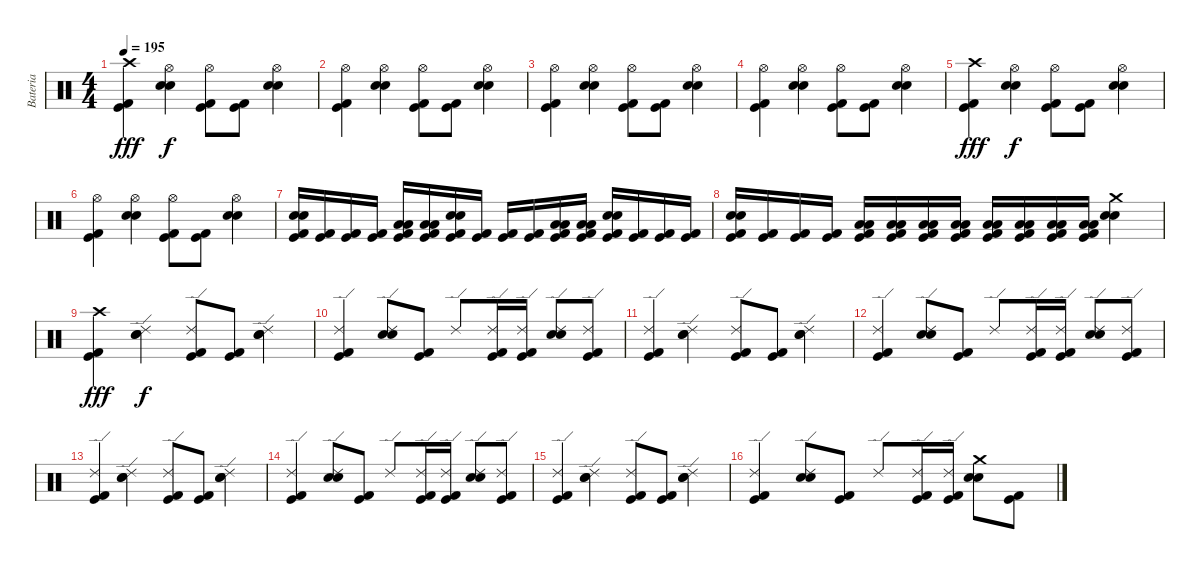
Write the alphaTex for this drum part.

\track ("Bateria" "Bateria") {instrument percussion}
\staff {score}
\articulation defaults
\ts (4 4)
\tempo 195
\clef neutral
\ks c
("Crash high (hit)" "Kick (hit) 2" "Kick (hit)").4{dy fff} ("Hi-Hat (open)" "Electric Snare (hit)" "Snare (hit) 2").4{dy f} ("Hi-Hat (open)" "Kick (hit) 2" "Kick (hit)").8 ("Kick (hit) 2" "Kick (hit)").8 ("Hi-Hat (open)" "Electric Snare (hit)" "Snare (hit) 2").4 |
("Hi-Hat (open)" "Kick (hit) 2" "Kick (hit)").4 ("Hi-Hat (open)" "Electric Snare (hit)" "Snare (hit) 2").4 ("Hi-Hat (open)" "Kick (hit) 2" "Kick (hit)").8 ("Kick (hit) 2" "Kick (hit)").8 ("Hi-Hat (open)" "Electric Snare (hit)" "Snare (hit) 2").4 |
("Hi-Hat (open)" "Kick (hit) 2" "Kick (hit)").4 ("Hi-Hat (open)" "Electric Snare (hit)" "Snare (hit) 2").4 ("Hi-Hat (open)" "Kick (hit) 2" "Kick (hit)").8 ("Kick (hit) 2" "Kick (hit)").8 ("Hi-Hat (open)" "Electric Snare (hit)" "Snare (hit) 2").4 |
("Hi-Hat (open)" "Kick (hit) 2" "Kick (hit)").4 ("Hi-Hat (open)" "Electric Snare (hit)" "Snare (hit) 2").4 ("Hi-Hat (open)" "Kick (hit) 2" "Kick (hit)").8 ("Kick (hit) 2" "Kick (hit)").8 ("Hi-Hat (open)" "Electric Snare (hit)" "Snare (hit) 2").4 |
("Crash high (hit)" "Kick (hit) 2" "Kick (hit)").4{dy fff} ("Hi-Hat (open)" "Electric Snare (hit)" "Snare (hit) 2").4{dy f} ("Hi-Hat (open)" "Kick (hit) 2" "Kick (hit)").8 ("Kick (hit) 2" "Kick (hit)").8 ("Hi-Hat (open)" "Electric Snare (hit)" "Snare (hit) 2").4 |
("Hi-Hat (open)" "Kick (hit) 2" "Kick (hit)").4 ("Hi-Hat (open)" "Electric Snare (hit)" "Snare (hit) 2").4 ("Hi-Hat (open)" "Kick (hit) 2" "Kick (hit)").8 ("Kick (hit) 2" "Kick (hit)").8 ("Hi-Hat (open)" "Electric Snare (hit)" "Snare (hit) 2").4 |
("Electric Snare (hit)" "Snare (hit) 2" "Kick (hit) 2" "Kick (hit)").16 ("Kick (hit) 2" "Kick (hit)").16 ("Kick (hit) 2" "Kick (hit)").16 ("Kick (hit) 2" "Kick (hit)").16 ("Low Tom (hit)" "Low Floor Tom (hit)" "Kick (hit) 2" "Kick (hit)").16 ("Low Tom (hit)" "Low Floor Tom (hit)" "Kick (hit) 2" "Kick (hit)").16 ("Electric Snare (hit)" "Snare (hit) 2" "Kick (hit) 2" "Kick (hit)").16 ("Kick (hit) 2" "Kick (hit)").16 ("Kick (hit) 2" "Kick (hit)").16 ("Kick (hit) 2" "Kick (hit)").16 ("Low Tom (hit)" "Low Floor Tom (hit)" "Kick (hit) 2" "Kick (hit)").16 ("Low Tom (hit)" "Low Floor Tom (hit)" "Kick (hit) 2" "Kick (hit)").16 ("Electric Snare (hit)" "Snare (hit) 2" "Kick (hit) 2" "Kick (hit)").16 ("Kick (hit) 2" "Kick (hit)").16 ("Kick (hit) 2" "Kick (hit)").16 ("Kick (hit) 2" "Kick (hit)").16 |
("Electric Snare (hit)" "Snare (hit) 2" "Kick (hit) 2" "Kick (hit)").16 ("Kick (hit) 2" "Kick (hit)").16 ("Kick (hit) 2" "Kick (hit)").16 ("Kick (hit) 2" "Kick (hit)").16 ("Low Tom (hit)" "Low Floor Tom (hit)" "Kick (hit) 2" "Kick (hit)").16 ("Low Tom (hit)" "Low Floor Tom (hit)" "Kick (hit) 2" "Kick (hit)").16 ("Low Tom (hit)" "Low Floor Tom (hit)" "Kick (hit) 2" "Kick (hit)").16 ("Low Tom (hit)" "Low Floor Tom (hit)" "Kick (hit) 2" "Kick (hit)").16 ("Low Tom (hit)" "Low Floor Tom (hit)" "Kick (hit) 2" "Kick (hit)").16 ("Low Tom (hit)" "Low Floor Tom (hit)" "Kick (hit) 2" "Kick (hit)").16 ("Low Tom (hit)" "Low Floor Tom (hit)" "Kick (hit) 2" "Kick (hit)").16 ("Low Tom (hit)" "Low Floor Tom (hit)" "Kick (hit) 2" "Kick (hit)").16 ("Crash medium (hit)" "Electric Snare (hit)" "Snare (hit) 2").4 |
("Crash high (hit)" "Kick (hit) 2" "Kick (hit)").4{dy fff} ("Ride (edge) 2" "Electric Snare (hit)" "Snare (hit) 2").4{dy f} ("Ride (edge) 2" "Kick (hit) 2" "Kick (hit)").8 ("Kick (hit) 2" "Kick (hit)").8 ("Ride (edge) 2" "Electric Snare (hit)" "Snare (hit) 2").4 |
("Ride (edge) 2" "Kick (hit) 2" "Kick (hit)").4 ("Ride (edge) 2" "Electric Snare (hit)" "Snare (hit) 2").8 ("Kick (hit) 2" "Kick (hit)").8 "Ride (edge) 2".8 ("Ride (edge) 2" "Kick (hit) 2" "Kick (hit)").16 ("Ride (edge) 2" "Kick (hit) 2" "Kick (hit)").16 ("Ride (edge) 2" "Electric Snare (hit)" "Snare (hit) 2").8 ("Ride (edge) 2" "Kick (hit) 2" "Kick (hit)").8 |
("Ride (edge) 2" "Kick (hit) 2" "Kick (hit)").4 ("Ride (edge) 2" "Electric Snare (hit)" "Snare (hit) 2").4 ("Ride (edge) 2" "Kick (hit) 2" "Kick (hit)").8 ("Kick (hit) 2" "Kick (hit)").8 ("Ride (edge) 2" "Electric Snare (hit)" "Snare (hit) 2").4 |
("Ride (edge) 2" "Kick (hit) 2" "Kick (hit)").4 ("Ride (edge) 2" "Electric Snare (hit)" "Snare (hit) 2").8 ("Kick (hit) 2" "Kick (hit)").8 "Ride (edge) 2".8 ("Ride (edge) 2" "Kick (hit) 2" "Kick (hit)").16 ("Ride (edge) 2" "Kick (hit) 2" "Kick (hit)").16 ("Ride (edge) 2" "Electric Snare (hit)" "Snare (hit) 2").8 ("Ride (edge) 2" "Kick (hit) 2" "Kick (hit)").8 |
("Ride (edge) 2" "Kick (hit) 2" "Kick (hit)").4 ("Ride (edge) 2" "Electric Snare (hit)" "Snare (hit) 2").4 ("Ride (edge) 2" "Kick (hit) 2" "Kick (hit)").8 ("Kick (hit) 2" "Kick (hit)").8 ("Ride (edge) 2" "Electric Snare (hit)" "Snare (hit) 2").4 |
("Ride (edge) 2" "Kick (hit) 2" "Kick (hit)").4 ("Ride (edge) 2" "Electric Snare (hit)" "Snare (hit) 2").8 ("Kick (hit) 2" "Kick (hit)").8 "Ride (edge) 2".8 ("Ride (edge) 2" "Kick (hit) 2" "Kick (hit)").16 ("Ride (edge) 2" "Kick (hit) 2" "Kick (hit)").16 ("Ride (edge) 2" "Electric Snare (hit)" "Snare (hit) 2").8 ("Ride (edge) 2" "Kick (hit) 2" "Kick (hit)").8 |
("Ride (edge) 2" "Kick (hit) 2" "Kick (hit)").4 ("Ride (edge) 2" "Electric Snare (hit)" "Snare (hit) 2").4 ("Ride (edge) 2" "Kick (hit) 2" "Kick (hit)").8 ("Kick (hit) 2" "Kick (hit)").8 ("Ride (edge) 2" "Electric Snare (hit)" "Snare (hit) 2").4 |
("Ride (edge) 2" "Kick (hit) 2" "Kick (hit)").4 ("Ride (edge) 2" "Electric Snare (hit)" "Snare (hit) 2").8 ("Kick (hit) 2" "Kick (hit)").8 "Ride (edge) 2".8 ("Ride (edge) 2" "Kick (hit) 2" "Kick (hit)").16 ("Ride (edge) 2" "Kick (hit) 2" "Kick (hit)").16 ("Crash medium (hit)" "Electric Snare (hit)" "Snare (hit) 2").8 ("Kick (hit) 2" "Kick (hit)").8
